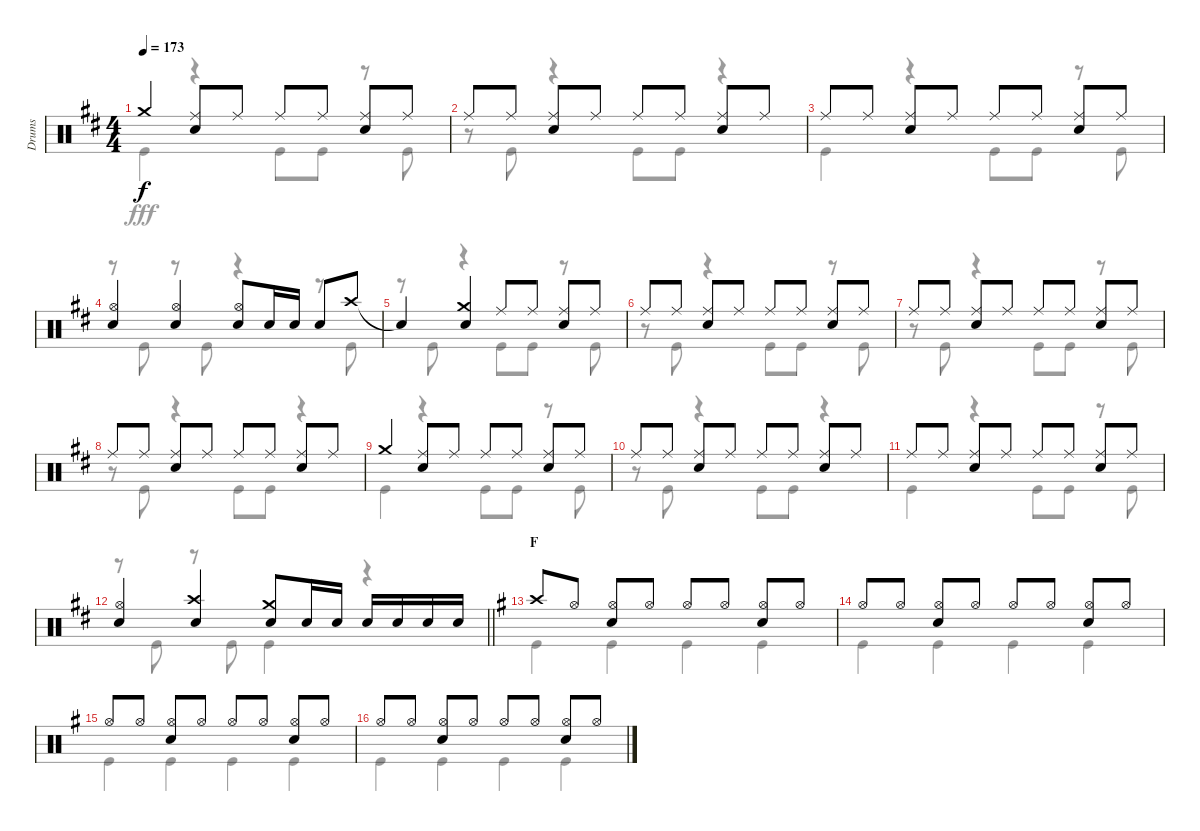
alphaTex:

\track ("Drums" "Drums") {instrument percussion}
\staff {score}
\articulation defaults
\voice
\ts (4 4)
\tempo 173
\clef neutral
\ks d "Crash medium (hit)".4{dy f}
("Ride (middle)" "Snare (hit) 2").8 "Ride (middle)".8 "Ride (middle)".8 "Ride (middle)".8 ("Ride (middle)" "Snare (hit) 2").8 "Ride (middle)".8 |
"Ride (middle)".8 "Ride (middle)".8 ("Ride (middle)" "Snare (hit) 2").8 "Ride (middle)".8 "Ride (middle)".8 "Ride (middle)".8 ("Ride (middle)" "Snare (hit) 2").8 "Ride (middle)".8 |
"Ride (middle)".8 "Ride (middle)".8 ("Ride (middle)" "Snare (hit) 2").8 "Ride (middle)".8 "Ride (middle)".8 "Ride (middle)".8 ("Ride (middle)" "Snare (hit) 2").8 "Ride (middle)".8 |
("Hi-Hat (open)" "Snare (hit) 2").4 ("Hi-Hat (open)" "Snare (hit) 2").4 ("Hi-Hat (open)" "Snare (hit) 2").8 "Snare (hit) 2".16 "Snare (hit) 2".16 "Snare (hit) 2".8 "Crash high (hit)".8 |
"Snare (hit)"{t}.4 ("Crash medium (hit)" "Snare (hit) 2").4 "Ride (middle)".8 "Ride (middle)".8 ("Ride (middle)" "Snare (hit) 2").8 "Ride (middle)".8 |
"Ride (middle)".8 "Ride (middle)".8 ("Ride (middle)" "Snare (hit) 2").8 "Ride (middle)".8 "Ride (middle)".8 "Ride (middle)".8 ("Ride (middle)" "Snare (hit) 2").8 "Ride (middle)".8 |
"Ride (middle)".8 "Ride (middle)".8 ("Ride (middle)" "Snare (hit) 2").8 "Ride (middle)".8 "Ride (middle)".8 "Ride (middle)".8 ("Ride (middle)" "Snare (hit) 2").8 "Ride (middle)".8 |
"Ride (middle)".8 "Ride (middle)".8 ("Ride (middle)" "Snare (hit) 2").8 "Ride (middle)".8 "Ride (middle)".8 "Ride (middle)".8 ("Ride (middle)" "Snare (hit) 2").8 "Ride (middle)".8 |
"Crash medium (hit)".4 ("Ride (middle)" "Snare (hit) 2").8 "Ride (middle)".8 "Ride (middle)".8 "Ride (middle)".8 ("Ride (middle)" "Snare (hit) 2").8 "Ride (middle)".8 |
"Ride (middle)".8 "Ride (middle)".8 ("Ride (middle)" "Snare (hit) 2").8 "Ride (middle)".8 "Ride (middle)".8 "Ride (middle)".8 ("Ride (middle)" "Snare (hit) 2").8 "Ride (middle)".8 |
"Ride (middle)".8 "Ride (middle)".8 ("Ride (middle)" "Snare (hit) 2").8 "Ride (middle)".8 "Ride (middle)".8 "Ride (middle)".8 ("Ride (middle)" "Snare (hit) 2").8 "Ride (middle)".8 |
\barLineRight lightlight
("Hi-Hat (open)" "Snare (hit) 2").4 ("Crash high (hit)" "Snare (hit) 2").4 ("Crash medium (hit)" "Snare (hit) 2").8 "Snare (hit) 2".16 "Snare (hit) 2".16 "Snare (hit) 2".16 "Snare (hit) 2".16 "Snare (hit) 2".16 "Snare (hit) 2".16 |
\section ("" "F")
\ks g "Crash high (hit)".8 "Hi-Hat (open)".8
("Hi-Hat (open)" "Snare (hit) 2").8 "Hi-Hat (open)".8 "Hi-Hat (open)".8 "Hi-Hat (open)".8 ("Hi-Hat (open)" "Snare (hit) 2").8 "Hi-Hat (open)".8 |
"Hi-Hat (open)".8 "Hi-Hat (open)".8 ("Hi-Hat (open)" "Snare (hit) 2").8 "Hi-Hat (open)".8 "Hi-Hat (open)".8 "Hi-Hat (open)".8 ("Hi-Hat (open)" "Snare (hit) 2").8 "Hi-Hat (open)".8 |
"Hi-Hat (open)".8 "Hi-Hat (open)".8 ("Hi-Hat (open)" "Snare (hit) 2").8 "Hi-Hat (open)".8 "Hi-Hat (open)".8 "Hi-Hat (open)".8 ("Hi-Hat (open)" "Snare (hit) 2").8 "Hi-Hat (open)".8 |
"Hi-Hat (open)".8 "Hi-Hat (open)".8 ("Hi-Hat (open)" "Snare (hit) 2").8 "Hi-Hat (open)".8 "Hi-Hat (open)".8 "Hi-Hat (open)".8 ("Hi-Hat (open)" "Snare (hit) 2").8 "Hi-Hat (open)".8
\voice
\clef neutral
\ottava regular
\simile none
\ks d "Kick (hit)".4{dy fff}
r.4 "Kick (hit)".8 "Kick (hit)".8 r.8 "Kick (hit)".8 |
r.8 "Kick (hit)".8 r.4 "Kick (hit)".8 "Kick (hit)".8 r.4 |
"Kick (hit)".4 r.4 "Kick (hit)".8 "Kick (hit)".8 r.8 "Kick (hit)".8 |
r.8 "Kick (hit)".8 r.8 "Kick (hit)".8 r.4 r.8 "Kick (hit)".8 |
r.8 "Kick (hit)".8 r.4 "Kick (hit)".8 "Kick (hit)".8 r.8 "Kick (hit)".8 |
r.8 "Kick (hit)".8 r.4 "Kick (hit)".8 "Kick (hit)".8 r.8 "Kick (hit)".8 |
r.8 "Kick (hit)".8 r.4 "Kick (hit)".8 "Kick (hit)".8 r.8 "Kick (hit)".8 |
r.8 "Kick (hit)".8 r.4 "Kick (hit)".8 "Kick (hit)".8 r.4 |
"Kick (hit)".4 r.4 "Kick (hit)".8 "Kick (hit)".8 r.8 "Kick (hit)".8 |
r.8 "Kick (hit)".8 r.4 "Kick (hit)".8 "Kick (hit)".8 r.4 |
"Kick (hit)".4 r.4 "Kick (hit)".8 "Kick (hit)".8 r.8 "Kick (hit)".8 |
\barLineRight lightlight
r.8 "Kick (hit)".8 r.8 "Kick (hit)".8 "Kick (hit)".4 r.4 |
\ks g "Kick (hit)".4 "Kick (hit)".4 "Kick (hit)".4 "Kick (hit)".4
|
"Kick (hit)".4 "Kick (hit)".4 "Kick (hit)".4 "Kick (hit)".4 |
"Kick (hit)".4 "Kick (hit)".4 "Kick (hit)".4 "Kick (hit)".4 |
"Kick (hit)".4 "Kick (hit)".4 "Kick (hit)".4 "Kick (hit)".4
